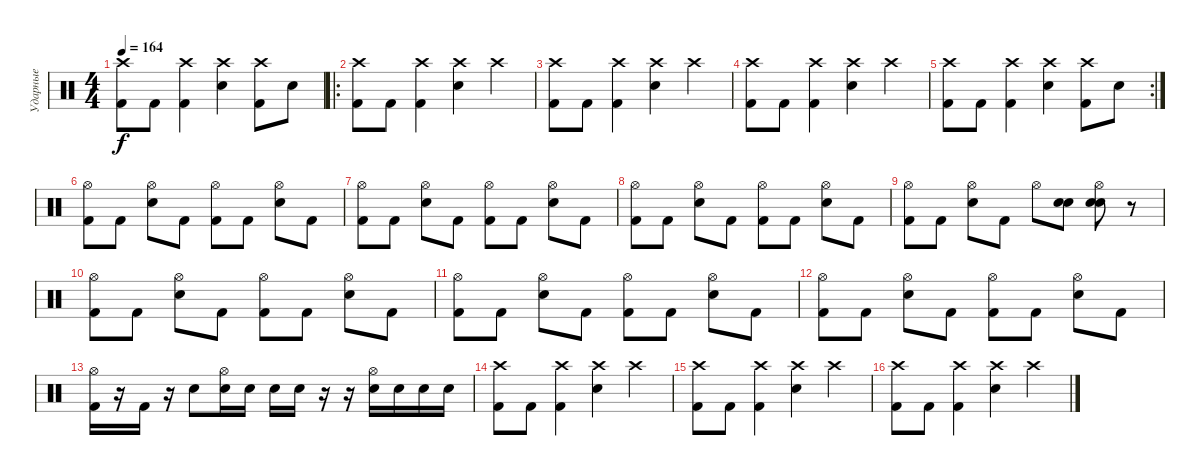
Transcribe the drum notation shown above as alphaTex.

\track ("Ударные" "Ударные") {instrument percussion}
\staff {score}
\articulation defaults
\ts (4 4)
\tempo 164
\clef neutral
\ks c
("Crash high (hit)" "Kick (hit) 2").8{dy f} "Kick (hit) 2".8 ("Crash high (hit)" "Kick (hit) 2").4 ("Crash high (hit)" "Snare (hit) 2").4 ("Crash high (hit)" "Kick (hit) 2").8 "Snare (hit) 2".8 |
\ro
("Crash high (hit)" "Kick (hit) 2").8 "Kick (hit) 2".8 ("Crash high (hit)" "Kick (hit) 2").4 ("Crash high (hit)" "Snare (hit) 2").4 "Crash high (hit)".4 |
("Crash high (hit)" "Kick (hit) 2").8 "Kick (hit) 2".8 ("Crash high (hit)" "Kick (hit) 2").4 ("Crash high (hit)" "Snare (hit) 2").4 "Crash high (hit)".4 |
("Crash high (hit)" "Kick (hit) 2").8 "Kick (hit) 2".8 ("Crash high (hit)" "Kick (hit) 2").4 ("Crash high (hit)" "Snare (hit) 2").4 "Crash high (hit)".4 |
\rc 2
("Crash high (hit)" "Kick (hit) 2").8 "Kick (hit) 2".8 ("Crash high (hit)" "Kick (hit) 2").4 ("Crash high (hit)" "Snare (hit) 2").4 ("Crash high (hit)" "Kick (hit) 2").8 "Snare (hit) 2".8 |
("Hi-Hat (open)" "Kick (hit) 2").8 "Kick (hit) 2".8 ("Hi-Hat (open)" "Snare (hit) 2").8 "Kick (hit) 2".8 ("Hi-Hat (open)" "Kick (hit) 2").8 "Kick (hit) 2".8 ("Hi-Hat (open)" "Snare (hit) 2").8 "Kick (hit) 2".8 |
("Hi-Hat (open)" "Kick (hit) 2").8 "Kick (hit) 2".8 ("Hi-Hat (open)" "Snare (hit) 2").8 "Kick (hit) 2".8 ("Hi-Hat (open)" "Kick (hit) 2").8 "Kick (hit) 2".8 ("Hi-Hat (open)" "Snare (hit) 2").8 "Kick (hit) 2".8 |
("Hi-Hat (open)" "Kick (hit) 2").8 "Kick (hit) 2".8 ("Hi-Hat (open)" "Snare (hit) 2").8 "Kick (hit) 2".8 ("Hi-Hat (open)" "Kick (hit) 2").8 "Kick (hit) 2".8 ("Hi-Hat (open)" "Snare (hit) 2").8 "Kick (hit) 2".8 |
("Hi-Hat (open)" "Kick (hit) 2").8 "Kick (hit) 2".8 ("Hi-Hat (open)" "Snare (hit) 2").8 "Kick (hit) 2".8 "Hi-Hat (open)".8 ("Snare (hit) 2" "Snare (hit) 2").8 ("Hi-Hat (open)" "Snare (hit) 2" "Snare (hit) 2").8 r.8 |
("Hi-Hat (open)" "Kick (hit) 2").8 "Kick (hit) 2".8 ("Hi-Hat (open)" "Snare (hit) 2").8 "Kick (hit) 2".8 ("Hi-Hat (open)" "Kick (hit) 2").8 "Kick (hit) 2".8 ("Hi-Hat (open)" "Snare (hit) 2").8 "Kick (hit) 2".8 |
("Hi-Hat (open)" "Kick (hit) 2").8 "Kick (hit) 2".8 ("Hi-Hat (open)" "Snare (hit) 2").8 "Kick (hit) 2".8 ("Hi-Hat (open)" "Kick (hit) 2").8 "Kick (hit) 2".8 ("Hi-Hat (open)" "Snare (hit) 2").8 "Kick (hit) 2".8 |
("Hi-Hat (open)" "Kick (hit) 2").8 "Kick (hit) 2".8 ("Hi-Hat (open)" "Snare (hit) 2").8 "Kick (hit) 2".8 ("Hi-Hat (open)" "Kick (hit) 2").8 "Kick (hit) 2".8 ("Hi-Hat (open)" "Snare (hit) 2").8 "Kick (hit) 2".8 |
("Hi-Hat (open)" "Kick (hit) 2").16 r.16 "Kick (hit) 2".16 r.16 "Snare (hit) 2".8 ("Hi-Hat (open)" "Snare (hit) 2").16 "Snare (hit) 2".16 "Snare (hit) 2".16 "Snare (hit) 2".16 r.16 r.16 ("Hi-Hat (open)" "Snare (hit) 2").16 "Snare (hit) 2".16 "Snare (hit) 2".16 "Snare (hit) 2".16 |
("Crash high (hit)" "Kick (hit) 2").8 "Kick (hit) 2".8 ("Crash high (hit)" "Kick (hit) 2").4 ("Crash high (hit)" "Snare (hit) 2").4 "Crash high (hit)".4 |
("Crash high (hit)" "Kick (hit) 2").8 "Kick (hit) 2".8 ("Crash high (hit)" "Kick (hit) 2").4 ("Crash high (hit)" "Snare (hit) 2").4 "Crash high (hit)".4 |
("Crash high (hit)" "Kick (hit) 2").8 "Kick (hit) 2".8 ("Crash high (hit)" "Kick (hit) 2").4 ("Crash high (hit)" "Snare (hit) 2").4 "Crash high (hit)".4
